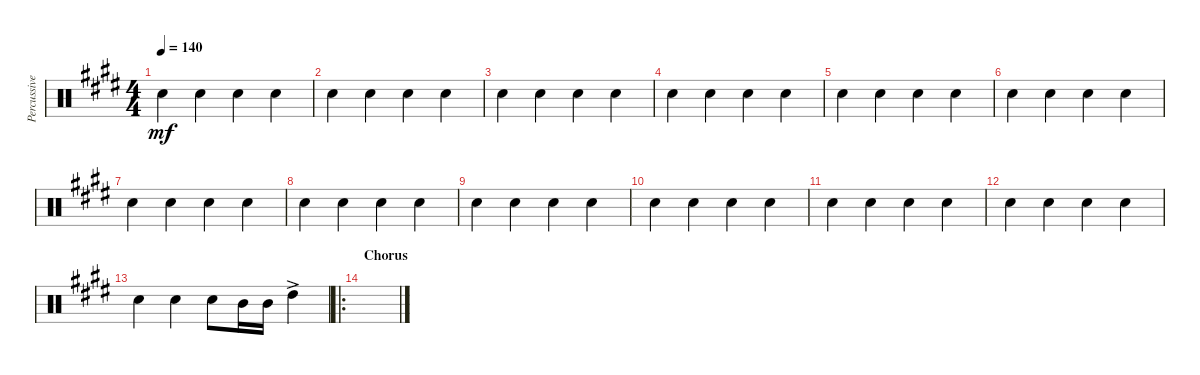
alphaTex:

\track ("Percussives" "Percussive") {instrument percussion}
\staff {score}
\articulation defaults
\ts (4 4)
\tempo 140
\clef neutral
\ks e "Snare (hit) 2".4{dy mf} "Snare (hit) 2".4 "Snare (hit) 2".4 "Snare (hit) 2".4
|
"Snare (hit) 2".4 "Snare (hit) 2".4 "Snare (hit) 2".4 "Snare (hit) 2".4 |
"Snare (hit) 2".4 "Snare (hit) 2".4 "Snare (hit) 2".4 "Snare (hit) 2".4 |
"Snare (hit) 2".4 "Snare (hit) 2".4 "Snare (hit) 2".4 "Snare (hit) 2".4 |
"Snare (hit) 2".4 "Snare (hit) 2".4 "Snare (hit) 2".4 "Snare (hit) 2".4 |
"Snare (hit) 2".4 "Snare (hit) 2".4 "Snare (hit) 2".4 "Snare (hit) 2".4 |
"Snare (hit) 2".4 "Snare (hit) 2".4 "Snare (hit) 2".4 "Snare (hit) 2".4 |
"Snare (hit) 2".4 "Snare (hit) 2".4 "Snare (hit) 2".4 "Snare (hit) 2".4 |
"Snare (hit) 2".4 "Snare (hit) 2".4 "Snare (hit) 2".4 "Snare (hit) 2".4 |
"Snare (hit) 2".4 "Snare (hit) 2".4 "Snare (hit) 2".4 "Snare (hit) 2".4 |
"Snare (hit) 2".4 "Snare (hit) 2".4 "Snare (hit) 2".4 "Snare (hit) 2".4 |
"Snare (hit) 2".4 "Snare (hit) 2".4 "Snare (hit) 2".4 "Snare (hit) 2".4 |
"Snare (hit) 2".4 "Snare (hit) 2".4 "Snare (hit) 2".8 "Mid Tom (hit)".16 "Mid Tom (hit)".16 "High Tom (hit)"{ac}.4 |
\ro
\section ("" "Chorus")
